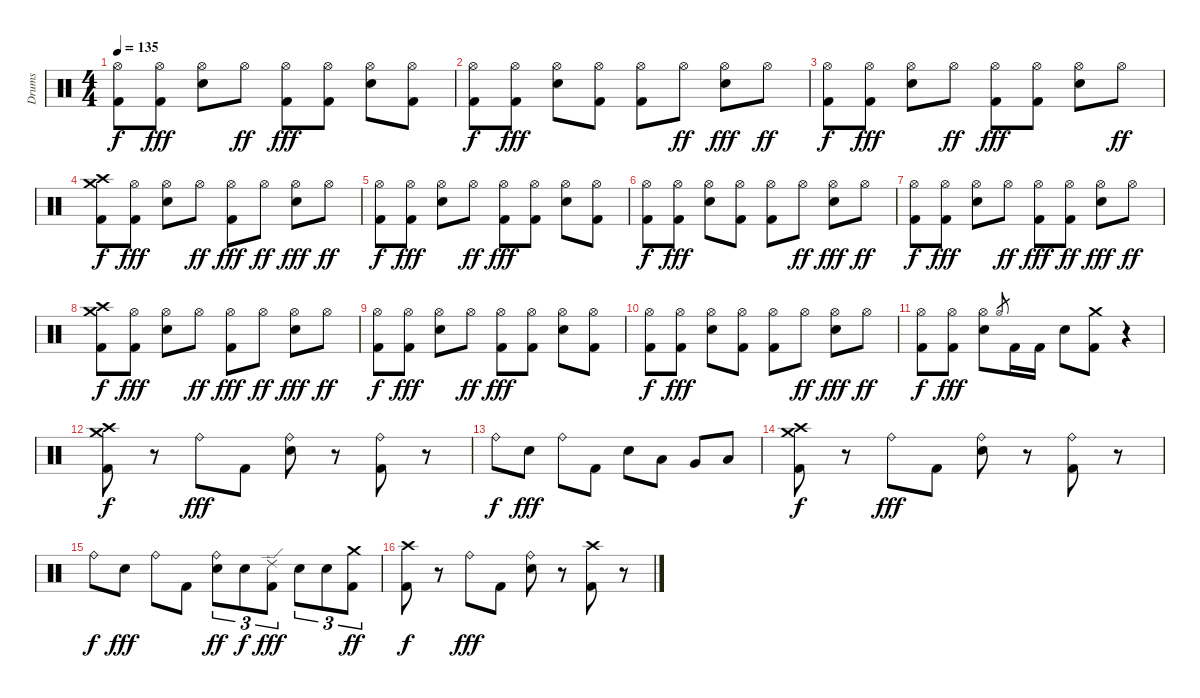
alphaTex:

\track ("Drums" "Drums") {instrument percussion}
\staff {score}
\articulation defaults
\ts (4 4)
\tempo 135
\clef neutral
\ks c
("Hi-Hat (open)" "Kick (hit) 2").8{dy f} ("Hi-Hat (open)" "Kick (hit) 2").8{dy fff} ("Hi-Hat (open)" "Snare (hit) 2").8 "Hi-Hat (open)".8{dy ff} ("Hi-Hat (open)" "Kick (hit) 2").8{dy fff} ("Hi-Hat (open)" "Kick (hit) 2").8 ("Hi-Hat (open)" "Snare (hit) 2").8 ("Hi-Hat (open)" "Kick (hit) 2").8 |
("Hi-Hat (open)" "Kick (hit) 2").8{dy f} ("Hi-Hat (open)" "Kick (hit) 2").8{dy fff} ("Hi-Hat (open)" "Snare (hit) 2").8 ("Hi-Hat (open)" "Kick (hit) 2").8 ("Hi-Hat (open)" "Kick (hit) 2").8 "Hi-Hat (open)".8{dy ff} ("Hi-Hat (open)" "Snare (hit) 2").8{dy fff} "Hi-Hat (open)".8{dy ff} |
("Hi-Hat (open)" "Kick (hit) 2").8{dy f} ("Hi-Hat (open)" "Kick (hit) 2").8{dy fff} ("Hi-Hat (open)" "Snare (hit) 2").8 "Hi-Hat (open)".8{dy ff} ("Hi-Hat (open)" "Kick (hit) 2").8{dy fff} ("Hi-Hat (open)" "Kick (hit) 2").8 ("Hi-Hat (open)" "Snare (hit) 2").8 "Hi-Hat (open)".8{dy ff} |
("Crash high (hit)" "Crash medium (hit)" "Kick (hit) 2").8{dy f} ("Hi-Hat (open)" "Kick (hit) 2").8{dy fff} ("Hi-Hat (open)" "Snare (hit) 2").8 "Hi-Hat (open)".8{dy ff} ("Hi-Hat (open)" "Kick (hit) 2").8{dy fff} "Hi-Hat (open)".8{dy ff} ("Hi-Hat (open)" "Snare (hit) 2").8{dy fff} "Hi-Hat (open)".8{dy ff} |
("Hi-Hat (open)" "Kick (hit) 2").8{dy f} ("Hi-Hat (open)" "Kick (hit) 2").8{dy fff} ("Hi-Hat (open)" "Snare (hit) 2").8 "Hi-Hat (open)".8{dy ff} ("Hi-Hat (open)" "Kick (hit) 2").8{dy fff} ("Hi-Hat (open)" "Kick (hit) 2").8 ("Hi-Hat (open)" "Snare (hit) 2").8 ("Hi-Hat (open)" "Kick (hit) 2").8 |
("Hi-Hat (open)" "Kick (hit) 2").8{dy f} ("Hi-Hat (open)" "Kick (hit) 2").8{dy fff} ("Hi-Hat (open)" "Snare (hit) 2").8 ("Hi-Hat (open)" "Kick (hit) 2").8 ("Hi-Hat (open)" "Kick (hit) 2").8 "Hi-Hat (open)".8{dy ff} ("Hi-Hat (open)" "Snare (hit) 2").8{dy fff} "Hi-Hat (open)".8{dy ff} |
("Hi-Hat (open)" "Kick (hit) 2").8{dy f} ("Hi-Hat (open)" "Kick (hit) 2").8{dy fff} ("Hi-Hat (open)" "Snare (hit) 2").8 "Hi-Hat (open)".8{dy ff} ("Hi-Hat (open)" "Kick (hit) 2").8{dy fff} ("Hi-Hat (open)" "Kick (hit) 2").8{dy ff} ("Hi-Hat (open)" "Snare (hit) 2").8{dy fff} "Hi-Hat (open)".8{dy ff} |
("Crash high (hit)" "Crash medium (hit)" "Kick (hit) 2").8{dy f} ("Hi-Hat (open)" "Kick (hit) 2").8{dy fff} ("Hi-Hat (open)" "Snare (hit) 2").8 "Hi-Hat (open)".8{dy ff} ("Hi-Hat (open)" "Kick (hit) 2").8{dy fff} "Hi-Hat (open)".8{dy ff} ("Hi-Hat (open)" "Snare (hit) 2").8{dy fff} "Hi-Hat (open)".8{dy ff} |
("Hi-Hat (open)" "Kick (hit) 2").8{dy f} ("Hi-Hat (open)" "Kick (hit) 2").8{dy fff} ("Hi-Hat (open)" "Snare (hit) 2").8 "Hi-Hat (open)".8{dy ff} ("Hi-Hat (open)" "Kick (hit) 2").8{dy fff} ("Hi-Hat (open)" "Kick (hit) 2").8 ("Hi-Hat (open)" "Snare (hit) 2").8 ("Hi-Hat (open)" "Kick (hit) 2").8 |
("Hi-Hat (open)" "Kick (hit) 2").8{dy f} ("Hi-Hat (open)" "Kick (hit) 2").8{dy fff} ("Hi-Hat (open)" "Snare (hit) 2").8 ("Hi-Hat (open)" "Kick (hit) 2").8 ("Hi-Hat (open)" "Kick (hit) 2").8 "Hi-Hat (open)".8{dy ff} ("Hi-Hat (open)" "Snare (hit) 2").8{dy fff} "Hi-Hat (open)".8{dy ff} |
("Hi-Hat (open)" "Kick (hit) 2").8{dy f} ("Hi-Hat (open)" "Kick (hit) 2").8{dy fff} ("Hi-Hat (open)" "Snare (hit) 2").8 "Hi-Hat (open)".8{gr} "Kick (hit) 2".16 "Kick (hit) 2".16 "Snare (hit) 2".8 ("Kick (hit) 2" "Crash medium (hit)").8 r.4 |
("Kick (hit) 2" "Crash high (hit)" "Crash medium (hit)").8{dy f} r.8 "Ride (bell)".8{dy fff} "Kick (hit) 2".8 ("Ride (bell)" "Snare (hit) 2").8 r.8 ("Ride (bell)" "Kick (hit) 2").8 r.8 |
"Ride (bell)".8{dy f} "Snare (hit) 2".8{dy fff} "Ride (bell)".8 "Kick (hit) 2".8 "Snare (hit) 2".8 "Low Tom (hit)".8 "Very Low Tom (hit)".8 "Low Floor Tom (hit)".8 |
("Crash medium (hit)" "Kick (hit) 2" "Crash high (hit)").8{dy f} r.8 "Ride (bell)".8{dy fff} "Kick (hit) 2".8 ("Ride (bell)" "Snare (hit) 2").8 r.8 ("Ride (bell)" "Kick (hit) 2").8 r.8 |
"Ride (bell)".8{dy f} "Snare (hit) 2".8{dy fff} "Ride (bell)".8 "Kick (hit) 2".8 ("Ride (bell)" "Snare (hit) 2").8{tu (3 2) dy ff} "Snare (hit) 2".8{tu (3 2) dy f} ("Ride (edge) 2" "Kick (hit) 2").8{tu (3 2) dy fff} "Snare (hit) 2".8{tu (3 2)} "Snare (hit) 2".8{tu (3 2)} ("Crash medium (hit)" "Kick (hit) 2").8{tu (3 2) dy ff} |
("Kick (hit) 2" "Crash high (hit)").8{dy f} r.8 "Ride (bell)".8{dy fff} "Kick (hit) 2".8 ("Ride (bell)" "Snare (hit) 2").8 r.8 ("Crash high (hit)" "Kick (hit) 2").8 r.8
